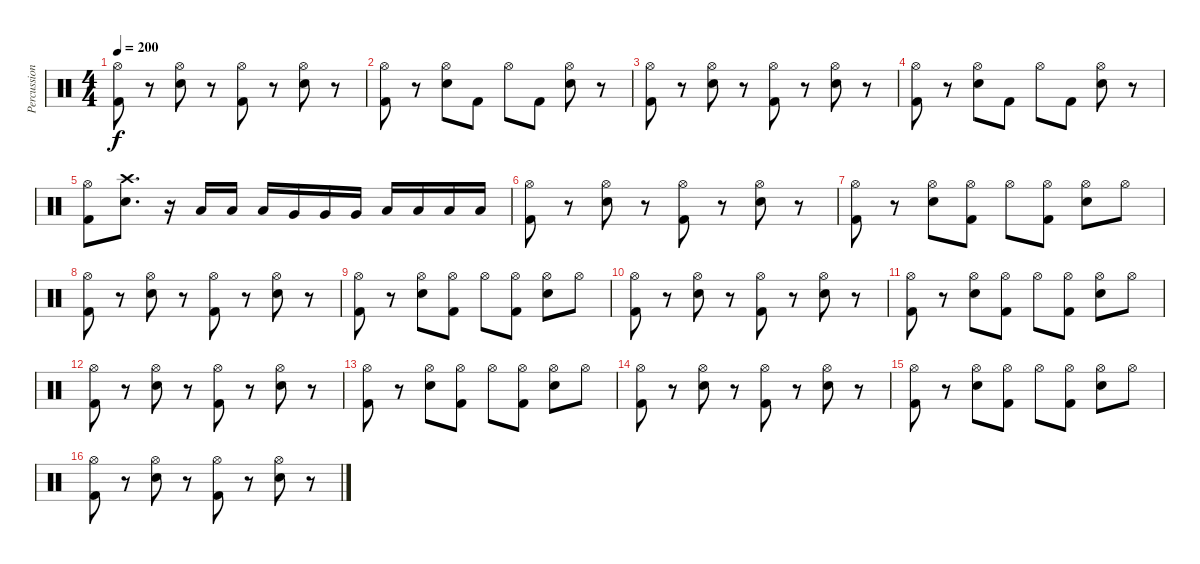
\track ("Percussion" "Percussion") {instrument percussion}
\staff {score}
\articulation defaults
\ts (4 4)
\tempo 200
\clef neutral
\ks c
("Hi-Hat (open)" "Kick (hit) 2").8{dy f} r.8 ("Hi-Hat (open)" "Electric Snare (hit)").8 r.8 ("Hi-Hat (open)" "Kick (hit) 2").8 r.8 ("Hi-Hat (open)" "Electric Snare (hit)").8 r.8 |
("Hi-Hat (open)" "Kick (hit) 2").8 r.8 ("Hi-Hat (open)" "Electric Snare (hit)").8 "Kick (hit) 2".8 "Hi-Hat (open)".8 "Kick (hit) 2".8 ("Hi-Hat (open)" "Electric Snare (hit)").8 r.8 |
("Hi-Hat (open)" "Kick (hit) 2").8 r.8 ("Hi-Hat (open)" "Electric Snare (hit)").8 r.8 ("Hi-Hat (open)" "Kick (hit) 2").8 r.8 ("Hi-Hat (open)" "Electric Snare (hit)").8 r.8 |
("Hi-Hat (open)" "Kick (hit) 2").8 r.8 ("Hi-Hat (open)" "Electric Snare (hit)").8 "Kick (hit) 2".8 "Hi-Hat (open)".8 "Kick (hit) 2".8 ("Hi-Hat (open)" "Electric Snare (hit)").8 r.8 |
("Hi-Hat (open)" "Kick (hit) 2").8 ("Crash high (hit)" "Electric Snare (hit)").8{d} r.16 "Low Tom (hit)".16 "Low Tom (hit)".16 "Low Tom (hit)".16 "Very Low Tom (hit)".16 "Very Low Tom (hit)".16 "Very Low Tom (hit)".16 "Low Floor Tom (hit)".16 "Low Floor Tom (hit)".16 "Low Floor Tom (hit)".16 "Low Floor Tom (hit)".16 |
("Hi-Hat (open)" "Kick (hit) 2").8 r.8 ("Hi-Hat (open)" "Electric Snare (hit)").8 r.8 ("Hi-Hat (open)" "Kick (hit) 2").8 r.8 ("Hi-Hat (open)" "Electric Snare (hit)").8 r.8 |
("Hi-Hat (open)" "Kick (hit) 2").8 r.8 ("Hi-Hat (open)" "Electric Snare (hit)").8 ("Hi-Hat (open)" "Kick (hit) 2").8 "Hi-Hat (open)".8 ("Hi-Hat (open)" "Kick (hit) 2").8 ("Hi-Hat (open)" "Electric Snare (hit)").8 "Hi-Hat (open)".8 |
("Hi-Hat (open)" "Kick (hit) 2").8 r.8 ("Hi-Hat (open)" "Electric Snare (hit)").8 r.8 ("Hi-Hat (open)" "Kick (hit) 2").8 r.8 ("Hi-Hat (open)" "Electric Snare (hit)").8 r.8 |
("Hi-Hat (open)" "Kick (hit) 2").8 r.8 ("Hi-Hat (open)" "Electric Snare (hit)").8 ("Hi-Hat (open)" "Kick (hit) 2").8 "Hi-Hat (open)".8 ("Hi-Hat (open)" "Kick (hit) 2").8 ("Hi-Hat (open)" "Electric Snare (hit)").8 "Hi-Hat (open)".8 |
("Hi-Hat (open)" "Kick (hit) 2").8 r.8 ("Hi-Hat (open)" "Electric Snare (hit)").8 r.8 ("Hi-Hat (open)" "Kick (hit) 2").8 r.8 ("Hi-Hat (open)" "Electric Snare (hit)").8 r.8 |
("Hi-Hat (open)" "Kick (hit) 2").8 r.8 ("Hi-Hat (open)" "Electric Snare (hit)").8 ("Hi-Hat (open)" "Kick (hit) 2").8 "Hi-Hat (open)".8 ("Hi-Hat (open)" "Kick (hit) 2").8 ("Hi-Hat (open)" "Electric Snare (hit)").8 "Hi-Hat (open)".8 |
("Hi-Hat (open)" "Kick (hit) 2").8 r.8 ("Hi-Hat (open)" "Electric Snare (hit)").8 r.8 ("Hi-Hat (open)" "Kick (hit) 2").8 r.8 ("Hi-Hat (open)" "Electric Snare (hit)").8 r.8 |
("Hi-Hat (open)" "Kick (hit) 2").8 r.8 ("Hi-Hat (open)" "Electric Snare (hit)").8 ("Hi-Hat (open)" "Kick (hit) 2").8 "Hi-Hat (open)".8 ("Hi-Hat (open)" "Kick (hit) 2").8 ("Hi-Hat (open)" "Electric Snare (hit)").8 "Hi-Hat (open)".8 |
("Hi-Hat (open)" "Kick (hit) 2").8 r.8 ("Hi-Hat (open)" "Electric Snare (hit)").8 r.8 ("Hi-Hat (open)" "Kick (hit) 2").8 r.8 ("Hi-Hat (open)" "Electric Snare (hit)").8 r.8 |
("Hi-Hat (open)" "Kick (hit) 2").8 r.8 ("Hi-Hat (open)" "Electric Snare (hit)").8 ("Hi-Hat (open)" "Kick (hit) 2").8 "Hi-Hat (open)".8 ("Hi-Hat (open)" "Kick (hit) 2").8 ("Hi-Hat (open)" "Electric Snare (hit)").8 "Hi-Hat (open)".8 |
("Hi-Hat (open)" "Kick (hit) 2").8 r.8 ("Hi-Hat (open)" "Electric Snare (hit)").8 r.8 ("Hi-Hat (open)" "Kick (hit) 2").8 r.8 ("Hi-Hat (open)" "Electric Snare (hit)").8 r.8
